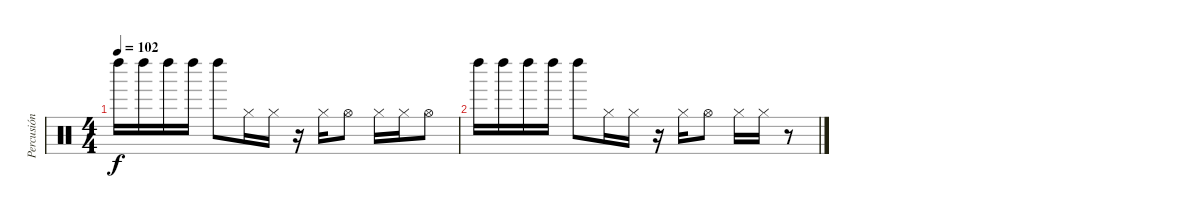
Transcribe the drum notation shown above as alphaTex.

\track ("Percusión" "Percusión") {instrument percussion}
\staff {score}
\articulation defaults
\ts (4 4)
\tempo 102
\clef neutral
\ks c "Left Maraca (hit)".16{dy f} "Left Maraca (hit)".16 "Left Maraca (hit)".16 "Left Maraca (hit)".16 "Left Maraca (hit)".8 "Hi-Hat (closed)".16 "Hi-Hat (closed)".16
r.16 "Hi-Hat (closed)".16 "Hi-Hat (open)".8 "Hi-Hat (closed)".16 "Hi-Hat (closed)".16 "Hi-Hat (open)".8 |
"Left Maraca (hit)".16 "Left Maraca (hit)".16 "Left Maraca (hit)".16 "Left Maraca (hit)".16 "Left Maraca (hit)".8 "Hi-Hat (closed)".16 "Hi-Hat (closed)".16 r.16 "Hi-Hat (closed)".16 "Hi-Hat (open)".8 "Hi-Hat (closed)".16 "Hi-Hat (closed)".16 r.8
